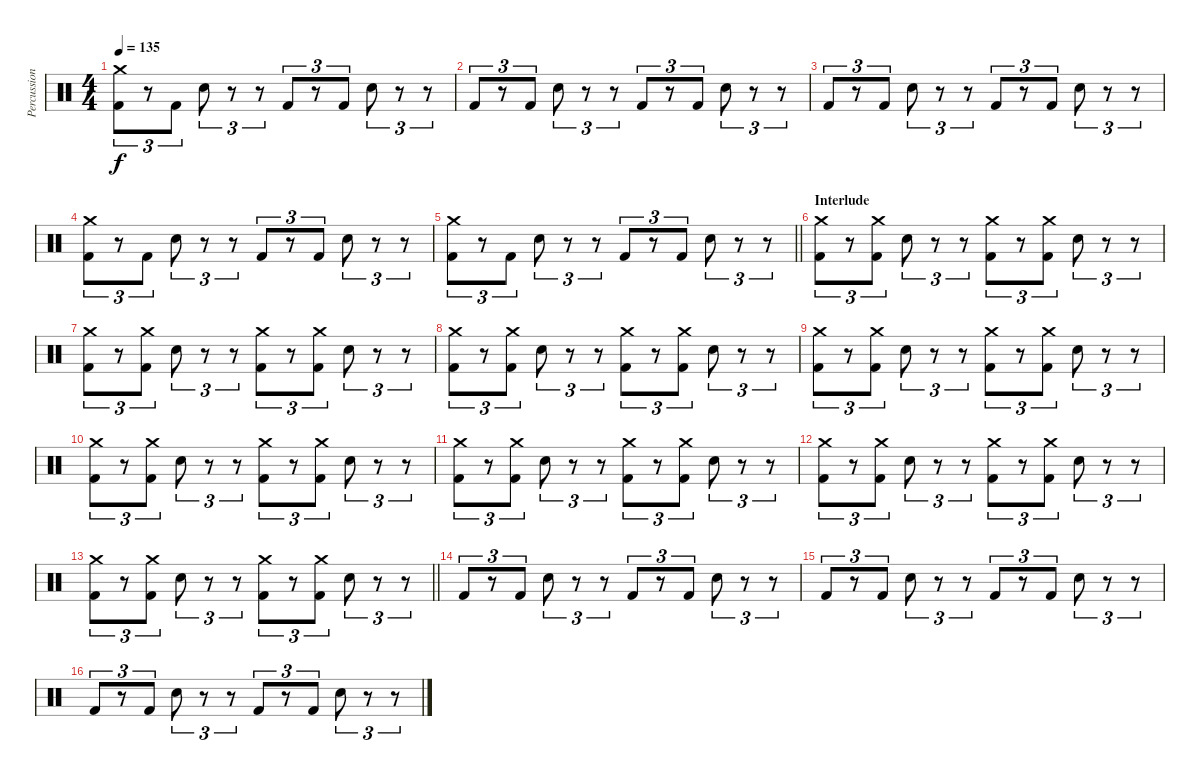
\track ("Percussion" "Percussion") {instrument percussion}
\staff {score}
\articulation defaults
\ts (4 4)
\tempo 135
\clef neutral
\ks c
("Crash medium (hit)" "Kick (hit) 2").8{tu (3 2) dy f} r.8{tu (3 2)} "Kick (hit) 2".8{tu (3 2)} "Electric Snare (hit)".8{tu (3 2)} r.8{tu (3 2)} r.8{tu (3 2)} "Kick (hit) 2".8{tu (3 2)} r.8{tu (3 2)} "Kick (hit) 2".8{tu (3 2)} "Electric Snare (hit)".8{tu (3 2)} r.8{tu (3 2)} r.8{tu (3 2)} |
"Kick (hit) 2".8{tu (3 2)} r.8{tu (3 2)} "Kick (hit) 2".8{tu (3 2)} "Electric Snare (hit)".8{tu (3 2)} r.8{tu (3 2)} r.8{tu (3 2)} "Kick (hit) 2".8{tu (3 2)} r.8{tu (3 2)} "Kick (hit) 2".8{tu (3 2)} "Electric Snare (hit)".8{tu (3 2)} r.8{tu (3 2)} r.8{tu (3 2)} |
"Kick (hit) 2".8{tu (3 2)} r.8{tu (3 2)} "Kick (hit) 2".8{tu (3 2)} "Electric Snare (hit)".8{tu (3 2)} r.8{tu (3 2)} r.8{tu (3 2)} "Kick (hit) 2".8{tu (3 2)} r.8{tu (3 2)} "Kick (hit) 2".8{tu (3 2)} "Electric Snare (hit)".8{tu (3 2)} r.8{tu (3 2)} r.8{tu (3 2)} |
("Crash medium (hit)" "Kick (hit) 2").8{tu (3 2)} r.8{tu (3 2)} "Kick (hit) 2".8{tu (3 2)} "Electric Snare (hit)".8{tu (3 2)} r.8{tu (3 2)} r.8{tu (3 2)} "Kick (hit) 2".8{tu (3 2)} r.8{tu (3 2)} "Kick (hit) 2".8{tu (3 2)} "Electric Snare (hit)".8{tu (3 2)} r.8{tu (3 2)} r.8{tu (3 2)} |
\barLineRight lightlight
("Crash medium (hit)" "Kick (hit) 2").8{tu (3 2)} r.8{tu (3 2)} "Kick (hit) 2".8{tu (3 2)} "Electric Snare (hit)".8{tu (3 2)} r.8{tu (3 2)} r.8{tu (3 2)} "Kick (hit) 2".8{tu (3 2)} r.8{tu (3 2)} "Kick (hit) 2".8{tu (3 2)} "Electric Snare (hit)".8{tu (3 2)} r.8{tu (3 2)} r.8{tu (3 2)} |
\section ("" "Interlude")
("Crash medium (hit)" "Kick (hit) 2").8{tu (3 2)} r.8{tu (3 2)} ("Crash medium (hit)" "Kick (hit) 2").8{tu (3 2)} "Electric Snare (hit)".8{tu (3 2)} r.8{tu (3 2)} r.8{tu (3 2)} ("Crash medium (hit)" "Kick (hit) 2").8{tu (3 2)} r.8{tu (3 2)} ("Crash medium (hit)" "Kick (hit) 2").8{tu (3 2)} "Electric Snare (hit)".8{tu (3 2)} r.8{tu (3 2)} r.8{tu (3 2)} |
("Crash medium (hit)" "Kick (hit) 2").8{tu (3 2)} r.8{tu (3 2)} ("Crash medium (hit)" "Kick (hit) 2").8{tu (3 2)} "Electric Snare (hit)".8{tu (3 2)} r.8{tu (3 2)} r.8{tu (3 2)} ("Crash medium (hit)" "Kick (hit) 2").8{tu (3 2)} r.8{tu (3 2)} ("Crash medium (hit)" "Kick (hit) 2").8{tu (3 2)} "Electric Snare (hit)".8{tu (3 2)} r.8{tu (3 2)} r.8{tu (3 2)} |
("Crash medium (hit)" "Kick (hit) 2").8{tu (3 2)} r.8{tu (3 2)} ("Crash medium (hit)" "Kick (hit) 2").8{tu (3 2)} "Electric Snare (hit)".8{tu (3 2)} r.8{tu (3 2)} r.8{tu (3 2)} ("Crash medium (hit)" "Kick (hit) 2").8{tu (3 2)} r.8{tu (3 2)} ("Crash medium (hit)" "Kick (hit) 2").8{tu (3 2)} "Electric Snare (hit)".8{tu (3 2)} r.8{tu (3 2)} r.8{tu (3 2)} |
("Crash medium (hit)" "Kick (hit) 2").8{tu (3 2)} r.8{tu (3 2)} ("Crash medium (hit)" "Kick (hit) 2").8{tu (3 2)} "Electric Snare (hit)".8{tu (3 2)} r.8{tu (3 2)} r.8{tu (3 2)} ("Crash medium (hit)" "Kick (hit) 2").8{tu (3 2)} r.8{tu (3 2)} ("Crash medium (hit)" "Kick (hit) 2").8{tu (3 2)} "Electric Snare (hit)".8{tu (3 2)} r.8{tu (3 2)} r.8{tu (3 2)} |
("Crash medium (hit)" "Kick (hit) 2").8{tu (3 2)} r.8{tu (3 2)} ("Crash medium (hit)" "Kick (hit) 2").8{tu (3 2)} "Electric Snare (hit)".8{tu (3 2)} r.8{tu (3 2)} r.8{tu (3 2)} ("Crash medium (hit)" "Kick (hit) 2").8{tu (3 2)} r.8{tu (3 2)} ("Crash medium (hit)" "Kick (hit) 2").8{tu (3 2)} "Electric Snare (hit)".8{tu (3 2)} r.8{tu (3 2)} r.8{tu (3 2)} |
("Crash medium (hit)" "Kick (hit) 2").8{tu (3 2)} r.8{tu (3 2)} ("Crash medium (hit)" "Kick (hit) 2").8{tu (3 2)} "Electric Snare (hit)".8{tu (3 2)} r.8{tu (3 2)} r.8{tu (3 2)} ("Crash medium (hit)" "Kick (hit) 2").8{tu (3 2)} r.8{tu (3 2)} ("Crash medium (hit)" "Kick (hit) 2").8{tu (3 2)} "Electric Snare (hit)".8{tu (3 2)} r.8{tu (3 2)} r.8{tu (3 2)} |
("Crash medium (hit)" "Kick (hit) 2").8{tu (3 2)} r.8{tu (3 2)} ("Crash medium (hit)" "Kick (hit) 2").8{tu (3 2)} "Electric Snare (hit)".8{tu (3 2)} r.8{tu (3 2)} r.8{tu (3 2)} ("Crash medium (hit)" "Kick (hit) 2").8{tu (3 2)} r.8{tu (3 2)} ("Crash medium (hit)" "Kick (hit) 2").8{tu (3 2)} "Electric Snare (hit)".8{tu (3 2)} r.8{tu (3 2)} r.8{tu (3 2)} |
\barLineRight lightlight
("Crash medium (hit)" "Kick (hit) 2").8{tu (3 2)} r.8{tu (3 2)} ("Crash medium (hit)" "Kick (hit) 2").8{tu (3 2)} "Electric Snare (hit)".8{tu (3 2)} r.8{tu (3 2)} r.8{tu (3 2)} ("Crash medium (hit)" "Kick (hit) 2").8{tu (3 2)} r.8{tu (3 2)} ("Crash medium (hit)" "Kick (hit) 2").8{tu (3 2)} "Electric Snare (hit)".8{tu (3 2)} r.8{tu (3 2)} r.8{tu (3 2)} |
\section ("" "")
"Kick (hit) 2".8{tu (3 2)} r.8{tu (3 2)} "Kick (hit) 2".8{tu (3 2)} "Electric Snare (hit)".8{tu (3 2)} r.8{tu (3 2)} r.8{tu (3 2)} "Kick (hit) 2".8{tu (3 2)} r.8{tu (3 2)} "Kick (hit) 2".8{tu (3 2)} "Electric Snare (hit)".8{tu (3 2)} r.8{tu (3 2)} r.8{tu (3 2)} |
"Kick (hit) 2".8{tu (3 2)} r.8{tu (3 2)} "Kick (hit) 2".8{tu (3 2)} "Electric Snare (hit)".8{tu (3 2)} r.8{tu (3 2)} r.8{tu (3 2)} "Kick (hit) 2".8{tu (3 2)} r.8{tu (3 2)} "Kick (hit) 2".8{tu (3 2)} "Electric Snare (hit)".8{tu (3 2)} r.8{tu (3 2)} r.8{tu (3 2)} |
"Kick (hit) 2".8{tu (3 2)} r.8{tu (3 2)} "Kick (hit) 2".8{tu (3 2)} "Electric Snare (hit)".8{tu (3 2)} r.8{tu (3 2)} r.8{tu (3 2)} "Kick (hit) 2".8{tu (3 2)} r.8{tu (3 2)} "Kick (hit) 2".8{tu (3 2)} "Electric Snare (hit)".8{tu (3 2)} r.8{tu (3 2)} r.8{tu (3 2)}
